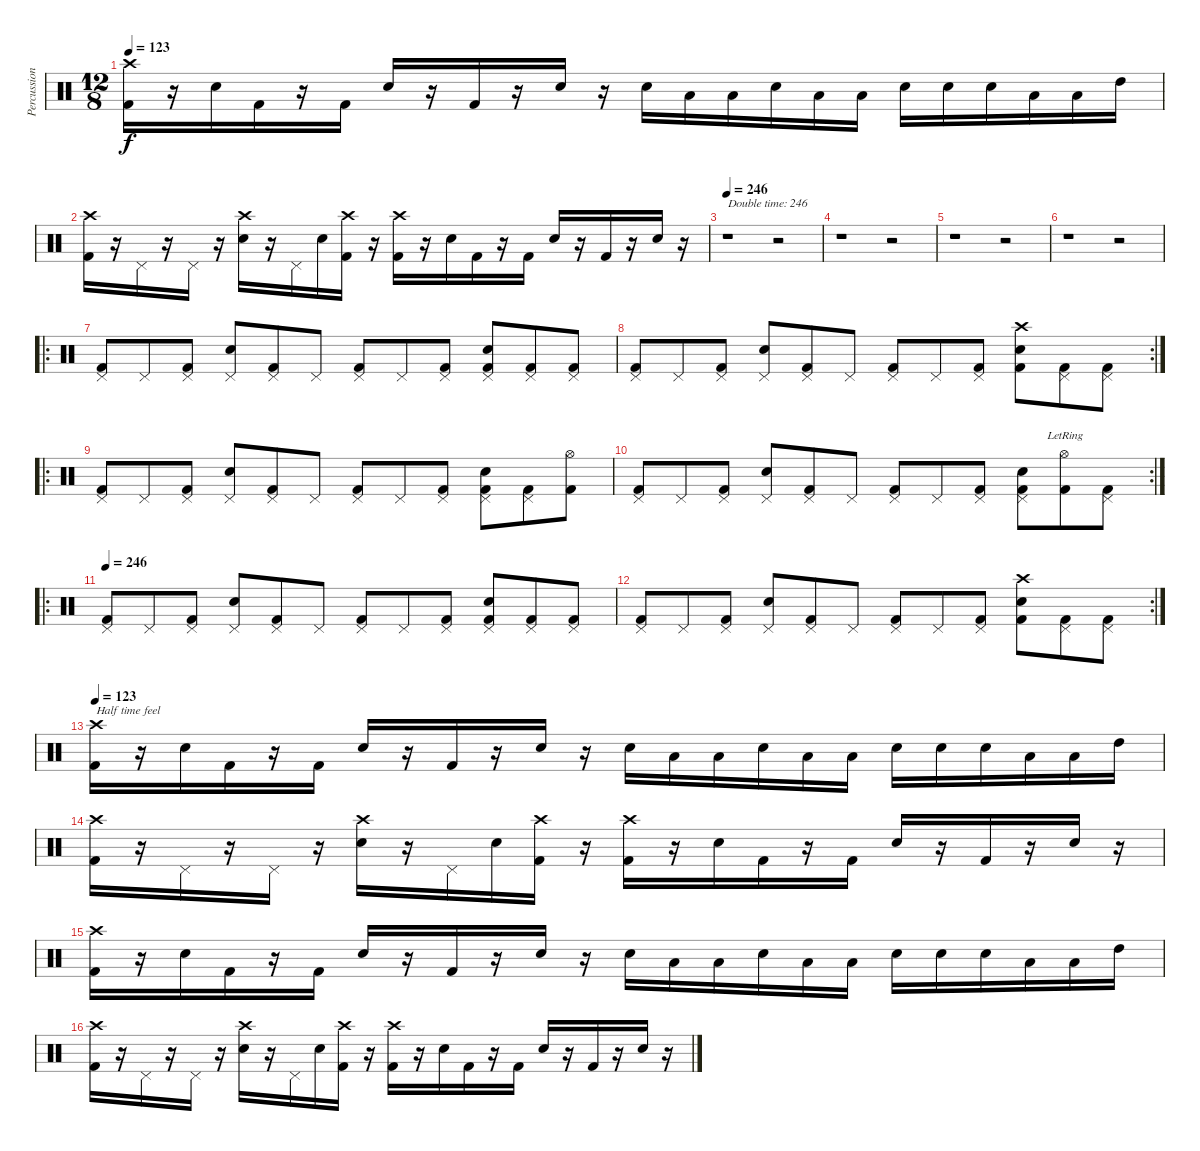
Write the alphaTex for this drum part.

\track ("Percussion" "Percussion") {instrument percussion}
\staff {score}
\articulation defaults
\ts (12 8)
\tempo 123
\clef neutral
\ks c
("Crash high (hit)" "Kick (hit) 2").16{dy f} r.16 "Snare (hit) 2".16 "Kick (hit) 2".16 r.16 "Kick (hit) 2".16 "Snare (hit) 2".16 r.16 "Kick (hit) 2".16 r.16 "Snare (hit) 2".16 r.16 "Snare (hit) 2".16 "Low Tom (hit)".16 "Low Tom (hit)".16 "Snare (hit) 2".16 "Low Tom (hit)".16 "Low Tom (hit)".16 "Snare (hit) 2".16 "Snare (hit) 2".16 "Snare (hit) 2".16 "Low Tom (hit)".16 "Low Tom (hit)".16 "High Tom (hit)".16 |
("Crash high (hit)" "Kick (hit) 2").16 r.16 "Pedal Hi-Hat (hit)".16 r.16 "Pedal Hi-Hat (hit)".16 r.16 ("Snare (hit) 2" "Crash high (hit)").16 r.16 "Pedal Hi-Hat (hit)".16 "Snare (hit) 2".16 ("Crash high (hit)" "Kick (hit) 2").16 r.16 ("Crash high (hit)" "Kick (hit) 2").16 r.16 "Snare (hit) 2".16 "Kick (hit) 2".16 r.16 "Kick (hit) 2".16 "Snare (hit) 2".16 r.16 "Kick (hit) 2".16 r.16 "Snare (hit) 2".16 r.16 |
\tempo 246
r.1{txt "Double time: 246"} r.2 |
r.1 r.2 |
r.1 r.2 |
r.1 r.2 |
\ro
("Pedal Hi-Hat (hit)" "Kick (hit) 2").8 "Pedal Hi-Hat (hit)".8 ("Pedal Hi-Hat (hit)" "Kick (hit) 2").8 ("Snare (hit) 2" "Pedal Hi-Hat (hit)").8 ("Pedal Hi-Hat (hit)" "Kick (hit) 2").8 "Pedal Hi-Hat (hit)".8 ("Pedal Hi-Hat (hit)" "Kick (hit) 2").8 "Pedal Hi-Hat (hit)".8 ("Pedal Hi-Hat (hit)" "Kick (hit) 2").8 ("Snare (hit) 2" "Pedal Hi-Hat (hit)" "Kick (hit) 2").8 ("Pedal Hi-Hat (hit)" "Kick (hit) 2").8 ("Pedal Hi-Hat (hit)" "Kick (hit) 2").8 |
\rc 2
("Pedal Hi-Hat (hit)" "Kick (hit) 2").8 "Pedal Hi-Hat (hit)".8 ("Pedal Hi-Hat (hit)" "Kick (hit) 2").8 ("Snare (hit) 2" "Pedal Hi-Hat (hit)").8 ("Pedal Hi-Hat (hit)" "Kick (hit) 2").8 "Pedal Hi-Hat (hit)".8 ("Pedal Hi-Hat (hit)" "Kick (hit) 2").8 "Pedal Hi-Hat (hit)".8 ("Pedal Hi-Hat (hit)" "Kick (hit) 2").8 ("Snare (hit) 2" "Crash high (hit)" "Kick (hit) 2").8 ("Pedal Hi-Hat (hit)" "Kick (hit) 2").8 ("Pedal Hi-Hat (hit)" "Kick (hit) 2").8 |
\ro
("Pedal Hi-Hat (hit)" "Kick (hit) 2").8 "Pedal Hi-Hat (hit)".8 ("Pedal Hi-Hat (hit)" "Kick (hit) 2").8 ("Snare (hit) 2" "Pedal Hi-Hat (hit)").8 ("Pedal Hi-Hat (hit)" "Kick (hit) 2").8 "Pedal Hi-Hat (hit)".8 ("Pedal Hi-Hat (hit)" "Kick (hit) 2").8 "Pedal Hi-Hat (hit)".8 ("Pedal Hi-Hat (hit)" "Kick (hit) 2").8 ("Snare (hit) 2" "Pedal Hi-Hat (hit)" "Kick (hit) 2").8 ("Pedal Hi-Hat (hit)" "Kick (hit) 2").8 ("Hi-Hat (open)" "Kick (hit) 2").8 |
\rc 2
("Pedal Hi-Hat (hit)" "Kick (hit) 2").8 "Pedal Hi-Hat (hit)".8 ("Pedal Hi-Hat (hit)" "Kick (hit) 2").8 ("Snare (hit) 2" "Pedal Hi-Hat (hit)").8 ("Pedal Hi-Hat (hit)" "Kick (hit) 2").8 "Pedal Hi-Hat (hit)".8 ("Pedal Hi-Hat (hit)" "Kick (hit) 2").8 "Pedal Hi-Hat (hit)".8 ("Pedal Hi-Hat (hit)" "Kick (hit) 2").8 ("Snare (hit) 2" "Pedal Hi-Hat (hit)" "Kick (hit) 2").8 ("Hi-Hat (open)"{lr} "Kick (hit) 2").8 ("Pedal Hi-Hat (hit)" "Kick (hit) 2").8 |
\ro
\tempo 246
("Pedal Hi-Hat (hit)" "Kick (hit) 2").8 "Pedal Hi-Hat (hit)".8 ("Pedal Hi-Hat (hit)" "Kick (hit) 2").8 ("Snare (hit) 2" "Pedal Hi-Hat (hit)").8 ("Pedal Hi-Hat (hit)" "Kick (hit) 2").8 "Pedal Hi-Hat (hit)".8 ("Pedal Hi-Hat (hit)" "Kick (hit) 2").8 "Pedal Hi-Hat (hit)".8 ("Pedal Hi-Hat (hit)" "Kick (hit) 2").8 ("Snare (hit) 2" "Pedal Hi-Hat (hit)" "Kick (hit) 2").8 ("Pedal Hi-Hat (hit)" "Kick (hit) 2").8 ("Pedal Hi-Hat (hit)" "Kick (hit) 2").8 |
\rc 2
("Pedal Hi-Hat (hit)" "Kick (hit) 2").8 "Pedal Hi-Hat (hit)".8 ("Pedal Hi-Hat (hit)" "Kick (hit) 2").8 ("Snare (hit) 2" "Pedal Hi-Hat (hit)").8 ("Pedal Hi-Hat (hit)" "Kick (hit) 2").8 "Pedal Hi-Hat (hit)".8 ("Pedal Hi-Hat (hit)" "Kick (hit) 2").8 "Pedal Hi-Hat (hit)".8 ("Pedal Hi-Hat (hit)" "Kick (hit) 2").8 ("Snare (hit) 2" "Crash high (hit)" "Kick (hit) 2").8 ("Pedal Hi-Hat (hit)" "Kick (hit) 2").8 ("Pedal Hi-Hat (hit)" "Kick (hit) 2").8 |
\tempo 123
("Crash high (hit)" "Kick (hit) 2").16{txt "Half time feel"} r.16 "Snare (hit) 2".16 "Kick (hit) 2".16 r.16 "Kick (hit) 2".16 "Snare (hit) 2".16 r.16 "Kick (hit) 2".16 r.16 "Snare (hit) 2".16 r.16 "Snare (hit) 2".16 "Low Tom (hit)".16 "Low Tom (hit)".16 "Snare (hit) 2".16 "Low Tom (hit)".16 "Low Tom (hit)".16 "Snare (hit) 2".16 "Snare (hit) 2".16 "Snare (hit) 2".16 "Low Tom (hit)".16 "Low Tom (hit)".16 "High Tom (hit)".16 |
("Crash high (hit)" "Kick (hit) 2").16 r.16 "Pedal Hi-Hat (hit)".16 r.16 "Pedal Hi-Hat (hit)".16 r.16 ("Snare (hit) 2" "Crash high (hit)").16 r.16 "Pedal Hi-Hat (hit)".16 "Snare (hit) 2".16 ("Crash high (hit)" "Kick (hit) 2").16 r.16 ("Crash high (hit)" "Kick (hit) 2").16 r.16 "Snare (hit) 2".16 "Kick (hit) 2".16 r.16 "Kick (hit) 2".16 "Snare (hit) 2".16 r.16 "Kick (hit) 2".16 r.16 "Snare (hit) 2".16 r.16 |
("Crash high (hit)" "Kick (hit) 2").16 r.16 "Snare (hit) 2".16 "Kick (hit) 2".16 r.16 "Kick (hit) 2".16 "Snare (hit) 2".16 r.16 "Kick (hit) 2".16 r.16 "Snare (hit) 2".16 r.16 "Snare (hit) 2".16 "Low Tom (hit)".16 "Low Tom (hit)".16 "Snare (hit) 2".16 "Low Tom (hit)".16 "Low Tom (hit)".16 "Snare (hit) 2".16 "Snare (hit) 2".16 "Snare (hit) 2".16 "Low Tom (hit)".16 "Low Tom (hit)".16 "High Tom (hit)".16 |
("Crash high (hit)" "Kick (hit) 2").16 r.16 "Pedal Hi-Hat (hit)".16 r.16 "Pedal Hi-Hat (hit)".16 r.16 ("Snare (hit) 2" "Crash high (hit)").16 r.16 "Pedal Hi-Hat (hit)".16 "Snare (hit) 2".16 ("Crash high (hit)" "Kick (hit) 2").16 r.16 ("Crash high (hit)" "Kick (hit) 2").16 r.16 "Snare (hit) 2".16 "Kick (hit) 2".16 r.16 "Kick (hit) 2".16 "Snare (hit) 2".16 r.16 "Kick (hit) 2".16 r.16 "Snare (hit) 2".16 r.16
